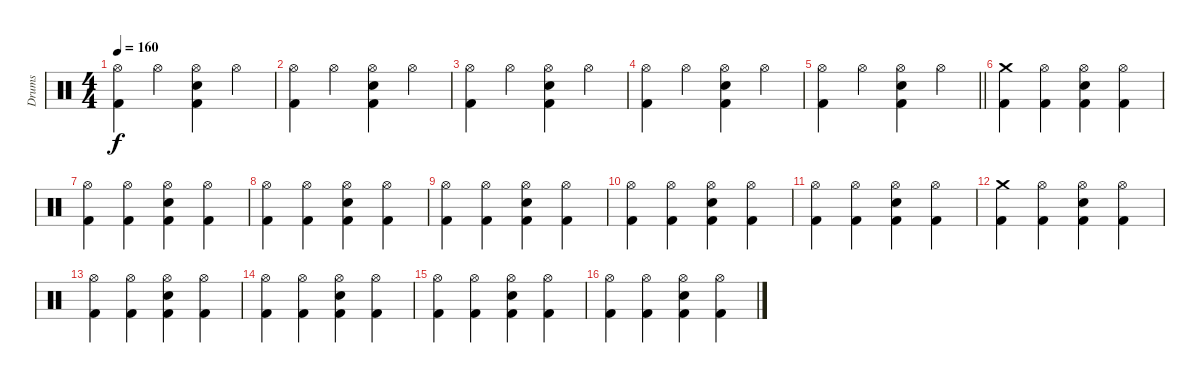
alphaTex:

\track ("Drums" "Drums") {instrument percussion}
\staff {score}
\articulation defaults
\ts (4 4)
\tempo 160
\clef neutral
\ks c
("Hi-Hat (open)" "Kick (hit) 2").4{dy f} "Hi-Hat (open)".4 ("Hi-Hat (open)" "Electric Snare (hit)" "Kick (hit) 2").4 "Hi-Hat (open)".4 |
("Hi-Hat (open)" "Kick (hit) 2").4 "Hi-Hat (open)".4 ("Hi-Hat (open)" "Electric Snare (hit)" "Kick (hit) 2").4 "Hi-Hat (open)".4 |
("Hi-Hat (open)" "Kick (hit) 2").4 "Hi-Hat (open)".4 ("Hi-Hat (open)" "Electric Snare (hit)" "Kick (hit) 2").4 "Hi-Hat (open)".4 |
("Hi-Hat (open)" "Kick (hit) 2").4 "Hi-Hat (open)".4 ("Hi-Hat (open)" "Electric Snare (hit)" "Kick (hit) 2").4 "Hi-Hat (open)".4 |
\barLineRight lightlight
("Hi-Hat (open)" "Kick (hit) 2").4 "Hi-Hat (open)".4 ("Hi-Hat (open)" "Electric Snare (hit)" "Kick (hit) 2").4 "Hi-Hat (open)".4 |
\section ("" "")
("Crash medium (hit)" "Kick (hit) 2").4 ("Hi-Hat (open)" "Kick (hit) 2").4 ("Hi-Hat (open)" "Electric Snare (hit)" "Kick (hit) 2").4 ("Hi-Hat (open)" "Kick (hit) 2").4 |
("Hi-Hat (open)" "Kick (hit) 2").4 ("Hi-Hat (open)" "Kick (hit) 2").4 ("Hi-Hat (open)" "Electric Snare (hit)" "Kick (hit) 2").4 ("Hi-Hat (open)" "Kick (hit) 2").4 |
("Hi-Hat (open)" "Kick (hit) 2").4 ("Hi-Hat (open)" "Kick (hit) 2").4 ("Hi-Hat (open)" "Electric Snare (hit)" "Kick (hit) 2").4 ("Hi-Hat (open)" "Kick (hit) 2").4 |
("Hi-Hat (open)" "Kick (hit) 2").4 ("Hi-Hat (open)" "Kick (hit) 2").4 ("Hi-Hat (open)" "Electric Snare (hit)" "Kick (hit) 2").4 ("Hi-Hat (open)" "Kick (hit) 2").4 |
("Hi-Hat (open)" "Kick (hit) 2").4 ("Hi-Hat (open)" "Kick (hit) 2").4 ("Hi-Hat (open)" "Electric Snare (hit)" "Kick (hit) 2").4 ("Hi-Hat (open)" "Kick (hit) 2").4 |
("Hi-Hat (open)" "Kick (hit) 2").4 ("Hi-Hat (open)" "Kick (hit) 2").4 ("Hi-Hat (open)" "Electric Snare (hit)" "Kick (hit) 2").4 ("Hi-Hat (open)" "Kick (hit) 2").4 |
("Crash medium (hit)" "Kick (hit) 2").4 ("Hi-Hat (open)" "Kick (hit) 2").4 ("Hi-Hat (open)" "Electric Snare (hit)" "Kick (hit) 2").4 ("Hi-Hat (open)" "Kick (hit) 2").4 |
("Hi-Hat (open)" "Kick (hit) 2").4 ("Hi-Hat (open)" "Kick (hit) 2").4 ("Hi-Hat (open)" "Electric Snare (hit)" "Kick (hit) 2").4 ("Hi-Hat (open)" "Kick (hit) 2").4 |
("Hi-Hat (open)" "Kick (hit) 2").4 ("Hi-Hat (open)" "Kick (hit) 2").4 ("Hi-Hat (open)" "Electric Snare (hit)" "Kick (hit) 2").4 ("Hi-Hat (open)" "Kick (hit) 2").4 |
("Hi-Hat (open)" "Kick (hit) 2").4 ("Hi-Hat (open)" "Kick (hit) 2").4 ("Hi-Hat (open)" "Electric Snare (hit)" "Kick (hit) 2").4 ("Hi-Hat (open)" "Kick (hit) 2").4 |
("Hi-Hat (open)" "Kick (hit) 2").4 ("Hi-Hat (open)" "Kick (hit) 2").4 ("Hi-Hat (open)" "Electric Snare (hit)" "Kick (hit) 2").4 ("Hi-Hat (open)" "Kick (hit) 2").4
